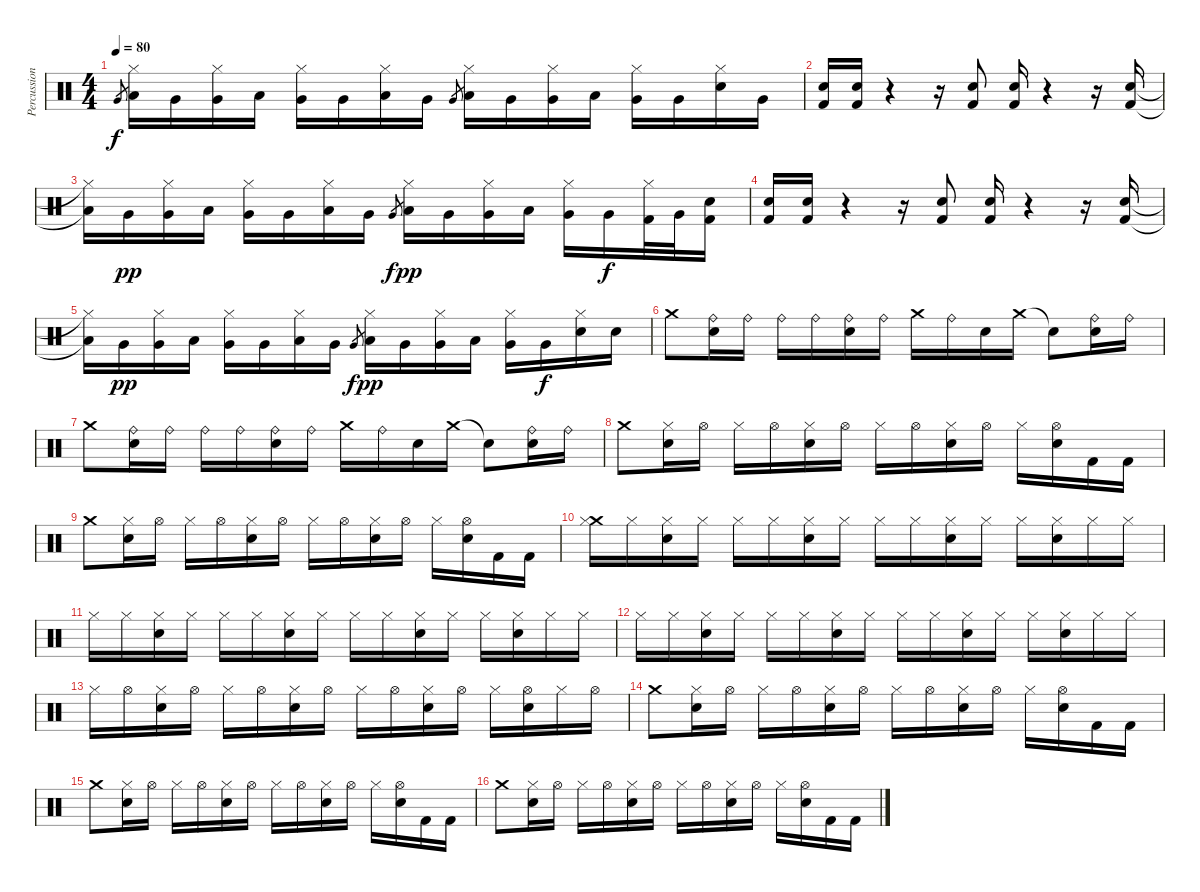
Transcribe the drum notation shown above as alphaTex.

\track ("Percussions" "Percussion") {instrument percussion}
\staff {score}
\articulation defaults
\ts (4 4)
\tempo 80
\clef neutral
\ks c "Very Low Tom (hit)".8{gr dy f}
("Hi-Hat (closed)" "Low Tom (hit)").16 "Very Low Tom (hit)".16 ("Hi-Hat (closed)" "Very Low Tom (hit)").16 "Low Tom (hit)".16 ("Hi-Hat (closed)" "Very Low Tom (hit)").16 "Very Low Tom (hit)".16 ("Hi-Hat (closed)" "Low Tom (hit)").16 "Very Low Tom (hit)".16 "Very Low Tom (hit)".8{gr} ("Hi-Hat (closed)" "Low Tom (hit)").16 "Very Low Tom (hit)".16 ("Hi-Hat (closed)" "Very Low Tom (hit)").16 "Low Tom (hit)".16 ("Hi-Hat (closed)" "Very Low Tom (hit)").16 "Very Low Tom (hit)".16 ("Hi-Hat (closed)" "Snare (hit) 2").16 "Very Low Tom (hit)".16 |
("Snare (hit) 2" "Kick (hit) 2").16 ("Snare (hit) 2" "Kick (hit) 2").16 r.4 r.16 ("Snare (hit) 2" "Kick (hit) 2").8 ("Kick (hit) 2" "Snare (hit) 2").16 r.4 r.16 ("Snare (hit) 2" "Kick (hit) 2").16 |
("Hi-Hat (closed)"{t} "Low Tom (hit)"{t}).16 "Very Low Tom (hit)".16{dy pp} ("Hi-Hat (closed)" "Very Low Tom (hit)").16 "Low Tom (hit)".16 ("Hi-Hat (closed)" "Very Low Tom (hit)").16 "Very Low Tom (hit)".16 ("Hi-Hat (closed)" "Low Tom (hit)").16 "Very Low Tom (hit)".16 "Very Low Tom (hit)".8{gr dy f} ("Hi-Hat (closed)" "Low Tom (hit)").16{dy pp} "Very Low Tom (hit)".16 ("Hi-Hat (closed)" "Very Low Tom (hit)").16 "Low Tom (hit)".16 ("Hi-Hat (closed)" "Very Low Tom (hit)").16 "Very Low Tom (hit)".16{dy f} ("Hi-Hat (closed)" "Kick (hit) 2").32 "Very Low Tom (hit)".32 ("Snare (hit) 2" "Kick (hit) 2").16 |
("Snare (hit) 2" "Kick (hit) 2").16 ("Snare (hit) 2" "Kick (hit) 2").16 r.4 r.16 ("Snare (hit) 2" "Kick (hit) 2").8 ("Kick (hit) 2" "Snare (hit) 2").16 r.4 r.16 ("Snare (hit) 2" "Kick (hit) 2").16 |
("Hi-Hat (closed)"{t} "Low Tom (hit)"{t}).16 "Very Low Tom (hit)".16{dy pp} ("Hi-Hat (closed)" "Very Low Tom (hit)").16 "Low Tom (hit)".16 ("Hi-Hat (closed)" "Very Low Tom (hit)").16 "Very Low Tom (hit)".16 ("Hi-Hat (closed)" "Low Tom (hit)").16 "Very Low Tom (hit)".16 "Very Low Tom (hit)".8{gr dy f} ("Hi-Hat (closed)" "Low Tom (hit)").16{dy pp} "Very Low Tom (hit)".16 ("Hi-Hat (closed)" "Very Low Tom (hit)").16 "Low Tom (hit)".16 ("Hi-Hat (closed)" "Very Low Tom (hit)").16 "Very Low Tom (hit)".16{dy f} ("Hi-Hat (closed)" "Snare (hit) 2").16 "Snare (hit) 2".16 |
"Crash medium (hit)".8 ("Snare (hit) 2" "Ride (bell)").16 "Ride (bell)".16 "Ride (bell)".16 "Ride (bell)".16 ("Snare (hit) 2" "Ride (bell)").16 "Ride (bell)".16 "Crash medium (hit)".16 "Ride (bell)".16 "Snare (hit) 2".16 "Crash medium (hit)".16 "Snare (hit)"{t}.8 ("Snare (hit) 2" "Ride (bell)").16 "Ride (bell)".16 |
"Crash medium (hit)".8 ("Snare (hit) 2" "Ride (bell)").16 "Ride (bell)".16 "Ride (bell)".16 "Ride (bell)".16 ("Snare (hit) 2" "Ride (bell)").16 "Ride (bell)".16 "Crash medium (hit)".16 "Ride (bell)".16 "Snare (hit) 2".16 "Crash medium (hit)".16 "Snare (hit)"{t}.8 ("Snare (hit) 2" "Ride (bell)").16 "Ride (bell)".16 |
"Crash medium (hit)".8 ("Snare (hit) 2" "Hi-Hat (closed)").16 "Hi-Hat (open)".16 "Hi-Hat (closed)".16 "Hi-Hat (open)".16 ("Snare (hit) 2" "Hi-Hat (closed)").16 "Hi-Hat (open)".16 "Hi-Hat (closed)".16 "Hi-Hat (open)".16 ("Snare (hit) 2" "Hi-Hat (closed)").16 "Hi-Hat (open)".16 "Hi-Hat (closed)".16 ("Snare (hit) 2" "Hi-Hat (open)").16 "Kick (hit) 2".16 "Kick (hit) 2".16 |
"Crash medium (hit)".8 ("Snare (hit) 2" "Hi-Hat (closed)").16 "Hi-Hat (open)".16 "Hi-Hat (closed)".16 "Hi-Hat (open)".16 ("Snare (hit) 2" "Hi-Hat (closed)").16 "Hi-Hat (open)".16 "Hi-Hat (closed)".16 "Hi-Hat (open)".16 ("Snare (hit) 2" "Hi-Hat (closed)").16 "Hi-Hat (open)".16 "Hi-Hat (closed)".16 ("Snare (hit) 2" "Hi-Hat (open)").16 "Kick (hit) 2".16 "Kick (hit) 2".16 |
("Crash medium (hit)" "Hi-Hat (closed)").16 "Hi-Hat (closed)".16 ("Snare (hit) 2" "Hi-Hat (closed)").16 "Hi-Hat (closed)".16 "Hi-Hat (closed)".16 "Hi-Hat (closed)".16 ("Snare (hit) 2" "Hi-Hat (closed)").16 "Hi-Hat (closed)".16 "Hi-Hat (closed)".16 "Hi-Hat (closed)".16 ("Snare (hit) 2" "Hi-Hat (closed)").16 "Hi-Hat (closed)".16 "Hi-Hat (closed)".16 ("Snare (hit) 2" "Hi-Hat (closed)").16 "Hi-Hat (closed)".16 "Hi-Hat (closed)".16 |
"Hi-Hat (closed)".16 "Hi-Hat (closed)".16 ("Snare (hit) 2" "Hi-Hat (closed)").16 "Hi-Hat (closed)".16 "Hi-Hat (closed)".16 "Hi-Hat (closed)".16 ("Snare (hit) 2" "Hi-Hat (closed)").16 "Hi-Hat (closed)".16 "Hi-Hat (closed)".16 "Hi-Hat (closed)".16 ("Snare (hit) 2" "Hi-Hat (closed)").16 "Hi-Hat (closed)".16 "Hi-Hat (closed)".16 ("Snare (hit) 2" "Hi-Hat (closed)").16 "Hi-Hat (closed)".16 "Hi-Hat (closed)".16 |
"Hi-Hat (closed)".16 "Hi-Hat (closed)".16 ("Snare (hit) 2" "Hi-Hat (closed)").16 "Hi-Hat (closed)".16 "Hi-Hat (closed)".16 "Hi-Hat (closed)".16 ("Snare (hit) 2" "Hi-Hat (closed)").16 "Hi-Hat (closed)".16 "Hi-Hat (closed)".16 "Hi-Hat (closed)".16 ("Snare (hit) 2" "Hi-Hat (closed)").16 "Hi-Hat (closed)".16 "Hi-Hat (closed)".16 ("Snare (hit) 2" "Hi-Hat (closed)").16 "Hi-Hat (closed)".16 "Hi-Hat (closed)".16 |
"Hi-Hat (closed)".16 "Hi-Hat (open)".16 ("Snare (hit) 2" "Hi-Hat (closed)").16 "Hi-Hat (open)".16 "Hi-Hat (closed)".16 "Hi-Hat (open)".16 ("Snare (hit) 2" "Hi-Hat (closed)").16 "Hi-Hat (open)".16 "Hi-Hat (closed)".16 "Hi-Hat (open)".16 ("Snare (hit) 2" "Hi-Hat (closed)").16 "Hi-Hat (open)".16 "Hi-Hat (closed)".16 ("Snare (hit) 2" "Hi-Hat (open)").16 "Hi-Hat (closed)".16 "Hi-Hat (open)".16 |
"Crash medium (hit)".8 ("Snare (hit) 2" "Hi-Hat (closed)").16 "Hi-Hat (open)".16 "Hi-Hat (closed)".16 "Hi-Hat (open)".16 ("Snare (hit) 2" "Hi-Hat (closed)").16 "Hi-Hat (open)".16 "Hi-Hat (closed)".16 "Hi-Hat (open)".16 ("Snare (hit) 2" "Hi-Hat (closed)").16 "Hi-Hat (open)".16 "Hi-Hat (closed)".16 ("Snare (hit) 2" "Hi-Hat (open)").16 "Kick (hit) 2".16 "Kick (hit) 2".16 |
"Crash medium (hit)".8 ("Snare (hit) 2" "Hi-Hat (closed)").16 "Hi-Hat (open)".16 "Hi-Hat (closed)".16 "Hi-Hat (open)".16 ("Snare (hit) 2" "Hi-Hat (closed)").16 "Hi-Hat (open)".16 "Hi-Hat (closed)".16 "Hi-Hat (open)".16 ("Snare (hit) 2" "Hi-Hat (closed)").16 "Hi-Hat (open)".16 "Hi-Hat (closed)".16 ("Snare (hit) 2" "Hi-Hat (open)").16 "Kick (hit) 2".16 "Kick (hit) 2".16 |
"Crash medium (hit)".8 ("Snare (hit) 2" "Hi-Hat (closed)").16 "Hi-Hat (open)".16 "Hi-Hat (closed)".16 "Hi-Hat (open)".16 ("Snare (hit) 2" "Hi-Hat (closed)").16 "Hi-Hat (open)".16 "Hi-Hat (closed)".16 "Hi-Hat (open)".16 ("Snare (hit) 2" "Hi-Hat (closed)").16 "Hi-Hat (open)".16 "Hi-Hat (closed)".16 ("Snare (hit) 2" "Hi-Hat (open)").16 "Kick (hit) 2".16 "Kick (hit) 2".16
